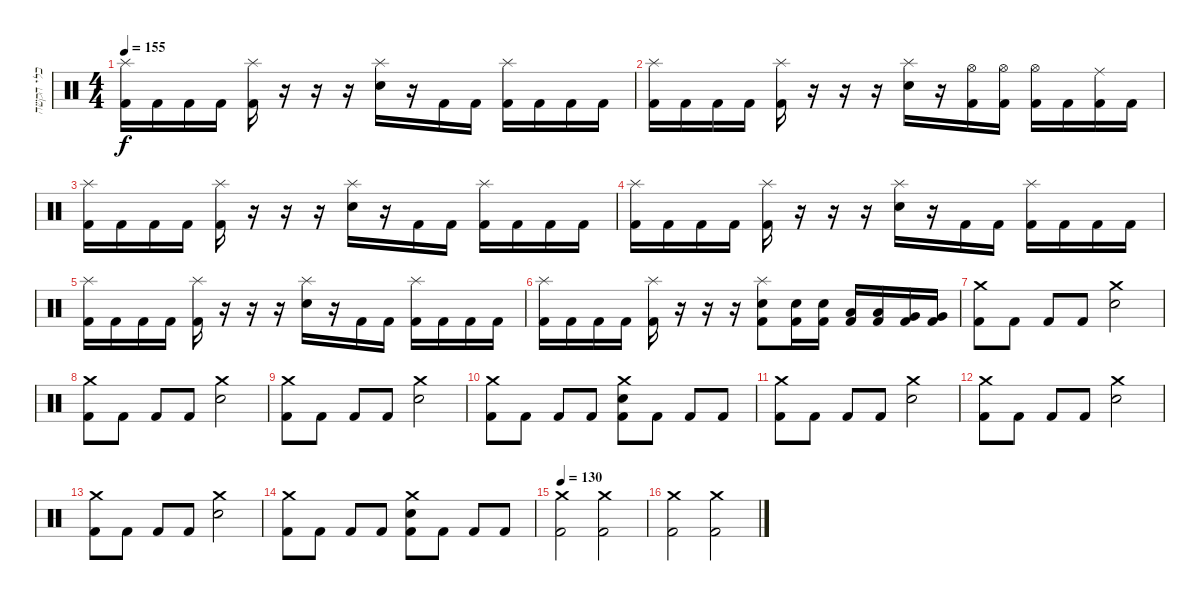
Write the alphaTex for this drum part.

\track ("כלי הקשה" "כלי הקשה") {instrument percussion}
\staff {score}
\articulation defaults
\ts (4 4)
\tempo 155
\clef neutral
\ks c
("Splash (hit)" "Kick (hit) 2").16{dy f} "Kick (hit) 2".16 "Kick (hit) 2".16 "Kick (hit) 2".16 ("Splash (hit)" "Kick (hit) 2").16 r.16 r.16 r.16 ("Splash (hit)" "Snare (hit) 2").16 r.16 "Kick (hit) 2".16 "Kick (hit) 2".16 ("Splash (hit)" "Kick (hit) 2").16 "Kick (hit) 2".16 "Kick (hit) 2".16 "Kick (hit) 2".16 |
("Splash (hit)" "Kick (hit) 2").16 "Kick (hit) 2".16 "Kick (hit) 2".16 "Kick (hit) 2".16 ("Splash (hit)" "Kick (hit) 2").16 r.16 r.16 r.16 ("Splash (hit)" "Snare (hit) 2").16 r.16 ("Hi-Hat (open)" "Kick (hit) 2").16 ("Hi-Hat (open)" "Kick (hit) 2").16 ("Hi-Hat (open)" "Kick (hit) 2").16 "Kick (hit) 2".16 ("Ride (middle)" "Kick (hit) 2").16 "Kick (hit) 2".16 |
("Splash (hit)" "Kick (hit) 2").16 "Kick (hit) 2".16 "Kick (hit) 2".16 "Kick (hit) 2".16 ("Splash (hit)" "Kick (hit) 2").16 r.16 r.16 r.16 ("Splash (hit)" "Snare (hit) 2").16 r.16 "Kick (hit) 2".16 "Kick (hit) 2".16 ("Splash (hit)" "Kick (hit) 2").16 "Kick (hit) 2".16 "Kick (hit) 2".16 "Kick (hit) 2".16 |
("Splash (hit)" "Kick (hit) 2").16 "Kick (hit) 2".16 "Kick (hit) 2".16 "Kick (hit) 2".16 ("Splash (hit)" "Kick (hit) 2").16 r.16 r.16 r.16 ("Splash (hit)" "Snare (hit) 2").16 r.16 "Kick (hit) 2".16 "Kick (hit) 2".16 ("Splash (hit)" "Kick (hit) 2").16 "Kick (hit) 2".16 "Kick (hit) 2".16 "Kick (hit) 2".16 |
("Splash (hit)" "Kick (hit) 2").16 "Kick (hit) 2".16 "Kick (hit) 2".16 "Kick (hit) 2".16 ("Splash (hit)" "Kick (hit) 2").16 r.16 r.16 r.16 ("Splash (hit)" "Snare (hit) 2").16 r.16 "Kick (hit) 2".16 "Kick (hit) 2".16 ("Splash (hit)" "Kick (hit) 2").16 "Kick (hit) 2".16 "Kick (hit) 2".16 "Kick (hit) 2".16 |
("Splash (hit)" "Kick (hit) 2").16 "Kick (hit) 2".16 "Kick (hit) 2".16 "Kick (hit) 2".16 ("Splash (hit)" "Kick (hit) 2").16 r.16 r.16 r.16 ("Splash (hit)" "Snare (hit) 2" "Kick (hit) 2").8 ("Snare (hit) 2" "Kick (hit) 2").16 ("Snare (hit) 2" "Kick (hit) 2").16 ("Low Tom (hit)" "Kick (hit) 2").16 ("Low Tom (hit)" "Kick (hit) 2").16 ("Very Low Tom (hit)" "Kick (hit) 2").16 ("Very Low Tom (hit)" "Kick (hit) 2").16 |
("Crash medium (hit)" "Kick (hit) 2").8 "Kick (hit) 2".8 "Kick (hit) 2".8 "Kick (hit) 2".8 ("Crash medium (hit)" "Snare (hit) 2").2 |
("Crash medium (hit)" "Kick (hit) 2").8 "Kick (hit) 2".8 "Kick (hit) 2".8 "Kick (hit) 2".8 ("Crash medium (hit)" "Snare (hit) 2").2 |
("Crash medium (hit)" "Kick (hit) 2").8 "Kick (hit) 2".8 "Kick (hit) 2".8 "Kick (hit) 2".8 ("Crash medium (hit)" "Snare (hit) 2").2 |
("Crash medium (hit)" "Kick (hit) 2").8 "Kick (hit) 2".8 "Kick (hit) 2".8 "Kick (hit) 2".8 ("Crash medium (hit)" "Snare (hit) 2" "Kick (hit) 2").8 "Kick (hit) 2".8 "Kick (hit) 2".8 "Kick (hit) 2".8 |
("Crash medium (hit)" "Kick (hit) 2").8 "Kick (hit) 2".8 "Kick (hit) 2".8 "Kick (hit) 2".8 ("Crash medium (hit)" "Snare (hit) 2").2 |
("Crash medium (hit)" "Kick (hit) 2").8 "Kick (hit) 2".8 "Kick (hit) 2".8 "Kick (hit) 2".8 ("Crash medium (hit)" "Snare (hit) 2").2 |
("Crash medium (hit)" "Kick (hit) 2").8 "Kick (hit) 2".8 "Kick (hit) 2".8 "Kick (hit) 2".8 ("Crash medium (hit)" "Snare (hit) 2").2 |
("Crash medium (hit)" "Kick (hit) 2").8 "Kick (hit) 2".8 "Kick (hit) 2".8 "Kick (hit) 2".8 ("Crash medium (hit)" "Snare (hit) 2" "Kick (hit) 2").8 "Kick (hit) 2".8 "Kick (hit) 2".8 "Kick (hit) 2".8 |
\tempo 130
("Crash medium (hit)" "Kick (hit) 2").2 ("Crash medium (hit)" "Kick (hit) 2").2 |
("Crash medium (hit)" "Kick (hit) 2").2 ("Crash medium (hit)" "Kick (hit) 2").2
